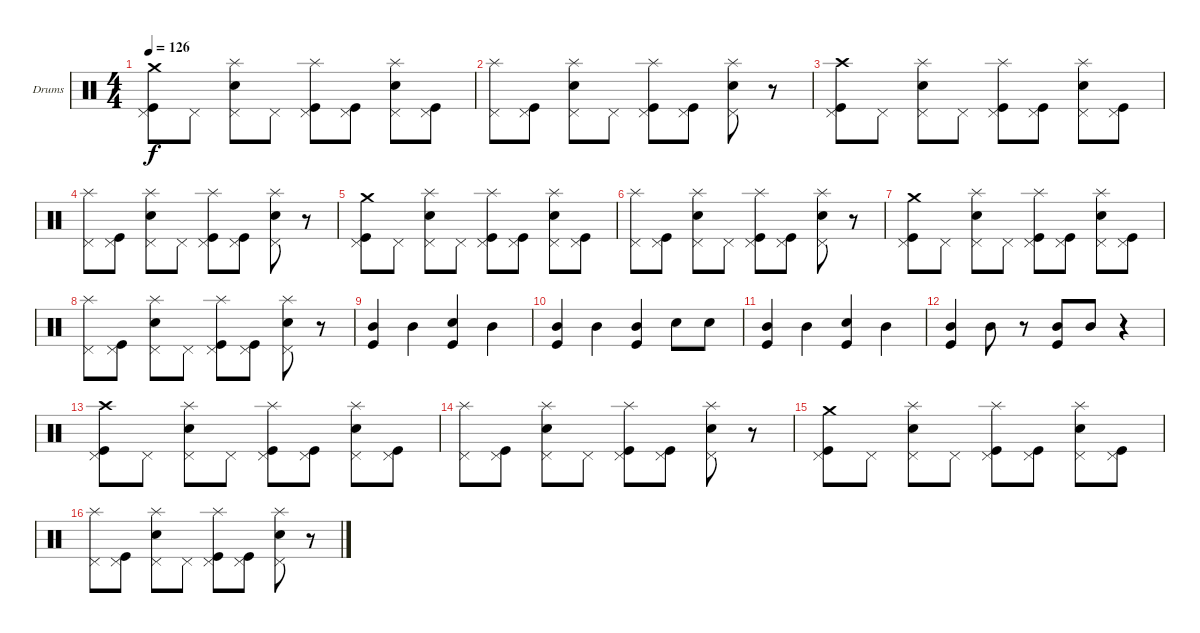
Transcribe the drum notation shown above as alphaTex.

\bracketExtendMode groupsimilarinstruments
\firstSystemTrackNameOrientation horizontal
\otherSystemsTrackNameOrientation horizontal
\track ("Drumkit" "Drums") {instrument percussion}
\staff {score}
\articulation defaults
\ts (4 4)
\tempo 126
\clef neutral
\ks c
("Pedal Hi-Hat (hit)" "Kick (hit)" "Crash medium (hit)").8{dy f} "Pedal Hi-Hat (hit)".8 ("Pedal Hi-Hat (hit)" "Snare (hit) 2" "Splash (hit)").8 "Pedal Hi-Hat (hit)".8 ("Pedal Hi-Hat (hit)" "Kick (hit)" "Splash (hit)").8 ("Kick (hit)" "Pedal Hi-Hat (hit)").8 ("Splash (hit)" "Snare (hit) 2" "Pedal Hi-Hat (hit)").8 ("Pedal Hi-Hat (hit)" "Kick (hit)").8 |
("Splash (hit)" "Pedal Hi-Hat (hit)").8 ("Kick (hit)" "Pedal Hi-Hat (hit)").8 ("Splash (hit)" "Snare (hit) 2" "Pedal Hi-Hat (hit)").8 "Pedal Hi-Hat (hit)".8 ("Splash (hit)" "Kick (hit)" "Pedal Hi-Hat (hit)").8 ("Pedal Hi-Hat (hit)" "Kick (hit)").8 ("Pedal Hi-Hat (hit)" "Snare (hit) 2" "Splash (hit)").8 r.8 |
("Pedal Hi-Hat (hit)" "Kick (hit)" "Crash high (hit)").8 "Pedal Hi-Hat (hit)".8 ("Pedal Hi-Hat (hit)" "Splash (hit)" "Snare (hit) 2").8 "Pedal Hi-Hat (hit)".8 ("Pedal Hi-Hat (hit)" "Splash (hit)" "Kick (hit)").8 ("Pedal Hi-Hat (hit)" "Kick (hit)").8 ("Pedal Hi-Hat (hit)" "Splash (hit)" "Snare (hit) 2").8 ("Pedal Hi-Hat (hit)" "Kick (hit)").8 |
("Pedal Hi-Hat (hit)" "Splash (hit)").8 ("Pedal Hi-Hat (hit)" "Kick (hit)").8 ("Pedal Hi-Hat (hit)" "Splash (hit)" "Snare (hit) 2").8 "Pedal Hi-Hat (hit)".8 ("Pedal Hi-Hat (hit)" "Splash (hit)" "Kick (hit)").8 ("Pedal Hi-Hat (hit)" "Kick (hit)").8 ("Pedal Hi-Hat (hit)" "Splash (hit)" "Snare (hit) 2").8 r.8 |
("Pedal Hi-Hat (hit)" "Kick (hit)" "Crash medium (hit)").8 "Pedal Hi-Hat (hit)".8 ("Pedal Hi-Hat (hit)" "Snare (hit) 2" "Splash (hit)").8 "Pedal Hi-Hat (hit)".8 ("Pedal Hi-Hat (hit)" "Kick (hit)" "Splash (hit)").8 ("Kick (hit)" "Pedal Hi-Hat (hit)").8 ("Splash (hit)" "Snare (hit) 2" "Pedal Hi-Hat (hit)").8 ("Pedal Hi-Hat (hit)" "Kick (hit)").8 |
("Splash (hit)" "Pedal Hi-Hat (hit)").8 ("Kick (hit)" "Pedal Hi-Hat (hit)").8 ("Splash (hit)" "Snare (hit) 2" "Pedal Hi-Hat (hit)").8 "Pedal Hi-Hat (hit)".8 ("Splash (hit)" "Kick (hit)" "Pedal Hi-Hat (hit)").8 ("Pedal Hi-Hat (hit)" "Kick (hit)").8 ("Pedal Hi-Hat (hit)" "Snare (hit) 2" "Splash (hit)").8 r.8 |
("Pedal Hi-Hat (hit)" "Kick (hit)" "Crash medium (hit)").8 "Pedal Hi-Hat (hit)".8 ("Pedal Hi-Hat (hit)" "Snare (hit) 2" "Splash (hit)").8 "Pedal Hi-Hat (hit)".8 ("Pedal Hi-Hat (hit)" "Kick (hit)" "Splash (hit)").8 ("Kick (hit)" "Pedal Hi-Hat (hit)").8 ("Splash (hit)" "Snare (hit) 2" "Pedal Hi-Hat (hit)").8 ("Pedal Hi-Hat (hit)" "Kick (hit)").8 |
("Splash (hit)" "Pedal Hi-Hat (hit)").8 ("Kick (hit)" "Pedal Hi-Hat (hit)").8 ("Splash (hit)" "Snare (hit) 2" "Pedal Hi-Hat (hit)").8 "Pedal Hi-Hat (hit)".8 ("Splash (hit)" "Kick (hit)" "Pedal Hi-Hat (hit)").8 ("Pedal Hi-Hat (hit)" "Kick (hit)").8 ("Pedal Hi-Hat (hit)" "Snare (hit) 2" "Splash (hit)").8 r.8 |
("Kick (hit)" "Mid Tom (hit)").4 "Mid Tom (hit)".4 ("Kick (hit)" "Snare (hit) 2").4 "Mid Tom (hit)".4 |
("Kick (hit)" "Mid Tom (hit)").4 "Mid Tom (hit)".4 ("Kick (hit)" "Mid Tom (hit)").4 "Snare (hit) 2".8 "Snare (hit) 2".8 |
("Kick (hit)" "Mid Tom (hit)").4 "Mid Tom (hit)".4 ("Kick (hit)" "Snare (hit) 2").4 "Mid Tom (hit)".4 |
("Kick (hit)" "Mid Tom (hit)").4 "Mid Tom (hit)".8 r.8 ("Mid Tom (hit)" "Kick (hit)").8 "Mid Tom (hit)".8 r.4 |
("Pedal Hi-Hat (hit)" "Kick (hit)" "Crash high (hit)").8 "Pedal Hi-Hat (hit)".8 ("Pedal Hi-Hat (hit)" "Splash (hit)" "Snare (hit) 2").8 "Pedal Hi-Hat (hit)".8 ("Pedal Hi-Hat (hit)" "Splash (hit)" "Kick (hit)").8 ("Pedal Hi-Hat (hit)" "Kick (hit)").8 ("Pedal Hi-Hat (hit)" "Splash (hit)" "Snare (hit) 2").8 ("Pedal Hi-Hat (hit)" "Kick (hit)").8 |
("Pedal Hi-Hat (hit)" "Splash (hit)").8 ("Pedal Hi-Hat (hit)" "Kick (hit)").8 ("Pedal Hi-Hat (hit)" "Splash (hit)" "Snare (hit) 2").8 "Pedal Hi-Hat (hit)".8 ("Pedal Hi-Hat (hit)" "Splash (hit)" "Kick (hit)").8 ("Pedal Hi-Hat (hit)" "Kick (hit)").8 ("Pedal Hi-Hat (hit)" "Splash (hit)" "Snare (hit) 2").8 r.8 |
("Pedal Hi-Hat (hit)" "Kick (hit)" "Crash medium (hit)").8 "Pedal Hi-Hat (hit)".8 ("Pedal Hi-Hat (hit)" "Snare (hit) 2" "Splash (hit)").8 "Pedal Hi-Hat (hit)".8 ("Pedal Hi-Hat (hit)" "Kick (hit)" "Splash (hit)").8 ("Kick (hit)" "Pedal Hi-Hat (hit)").8 ("Splash (hit)" "Snare (hit) 2" "Pedal Hi-Hat (hit)").8 ("Pedal Hi-Hat (hit)" "Kick (hit)").8 |
("Splash (hit)" "Pedal Hi-Hat (hit)").8 ("Kick (hit)" "Pedal Hi-Hat (hit)").8 ("Splash (hit)" "Snare (hit) 2" "Pedal Hi-Hat (hit)").8 "Pedal Hi-Hat (hit)".8 ("Splash (hit)" "Kick (hit)" "Pedal Hi-Hat (hit)").8 ("Pedal Hi-Hat (hit)" "Kick (hit)").8 ("Pedal Hi-Hat (hit)" "Snare (hit) 2" "Splash (hit)").8 r.8
